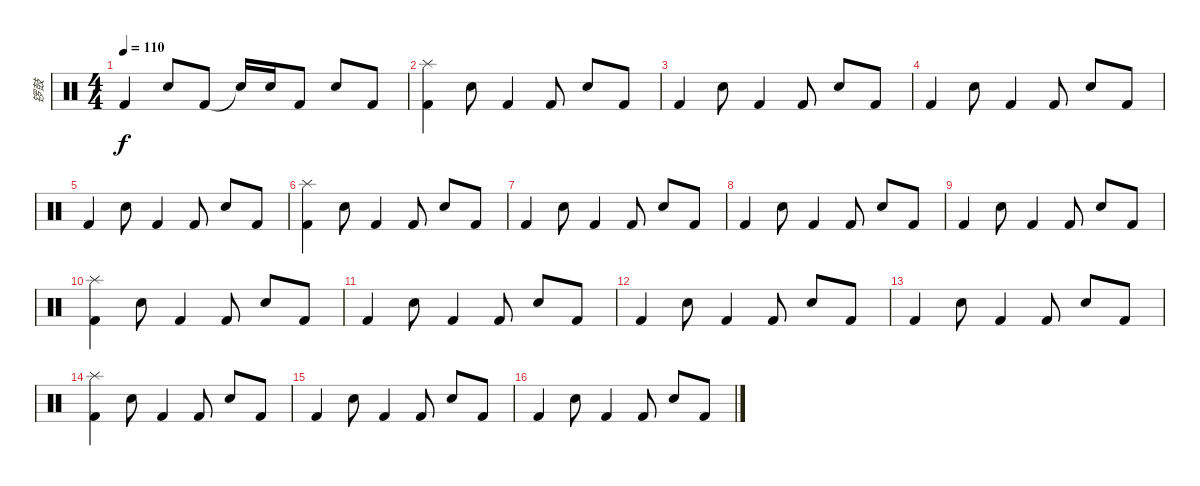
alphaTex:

\track ("锣鼓" "锣鼓") {instrument percussion}
\staff {score}
\articulation defaults
\ts (4 4)
\tempo 110
\clef neutral
\ks c "Kick (hit) 2".4{dy f} "Snare (hit) 2".8 "Kick (hit) 2".8 "Snare (hit)"{t}.16 "Snare (hit) 2".16 "Kick (hit) 2".8 "Snare (hit) 2".8 "Kick (hit) 2".8
|
("Kick (hit) 2" "Splash (hit)").4 "Snare (hit) 2".8 "Kick (hit) 2".4 "Kick (hit) 2".8 "Snare (hit) 2".8 "Kick (hit) 2".8 |
"Kick (hit) 2".4 "Snare (hit) 2".8 "Kick (hit) 2".4 "Kick (hit) 2".8 "Snare (hit) 2".8 "Kick (hit) 2".8 |
"Kick (hit) 2".4 "Snare (hit) 2".8 "Kick (hit) 2".4 "Kick (hit) 2".8 "Snare (hit) 2".8 "Kick (hit) 2".8 |
"Kick (hit) 2".4 "Snare (hit) 2".8 "Kick (hit) 2".4 "Kick (hit) 2".8 "Snare (hit) 2".8 "Kick (hit) 2".8 |
("Kick (hit) 2" "Splash (hit)").4 "Snare (hit) 2".8 "Kick (hit) 2".4 "Kick (hit) 2".8 "Snare (hit) 2".8 "Kick (hit) 2".8 |
"Kick (hit) 2".4 "Snare (hit) 2".8 "Kick (hit) 2".4 "Kick (hit) 2".8 "Snare (hit) 2".8 "Kick (hit) 2".8 |
"Kick (hit) 2".4 "Snare (hit) 2".8 "Kick (hit) 2".4 "Kick (hit) 2".8 "Snare (hit) 2".8 "Kick (hit) 2".8 |
"Kick (hit) 2".4 "Snare (hit) 2".8 "Kick (hit) 2".4 "Kick (hit) 2".8 "Snare (hit) 2".8 "Kick (hit) 2".8 |
("Kick (hit) 2" "Splash (hit)").4 "Snare (hit) 2".8 "Kick (hit) 2".4 "Kick (hit) 2".8 "Snare (hit) 2".8 "Kick (hit) 2".8 |
"Kick (hit) 2".4 "Snare (hit) 2".8 "Kick (hit) 2".4 "Kick (hit) 2".8 "Snare (hit) 2".8 "Kick (hit) 2".8 |
"Kick (hit) 2".4 "Snare (hit) 2".8 "Kick (hit) 2".4 "Kick (hit) 2".8 "Snare (hit) 2".8 "Kick (hit) 2".8 |
"Kick (hit) 2".4 "Snare (hit) 2".8 "Kick (hit) 2".4 "Kick (hit) 2".8 "Snare (hit) 2".8 "Kick (hit) 2".8 |
("Kick (hit) 2" "Splash (hit)").4 "Snare (hit) 2".8 "Kick (hit) 2".4 "Kick (hit) 2".8 "Snare (hit) 2".8 "Kick (hit) 2".8 |
"Kick (hit) 2".4 "Snare (hit) 2".8 "Kick (hit) 2".4 "Kick (hit) 2".8 "Snare (hit) 2".8 "Kick (hit) 2".8 |
"Kick (hit) 2".4 "Snare (hit) 2".8 "Kick (hit) 2".4 "Kick (hit) 2".8 "Snare (hit) 2".8 "Kick (hit) 2".8
